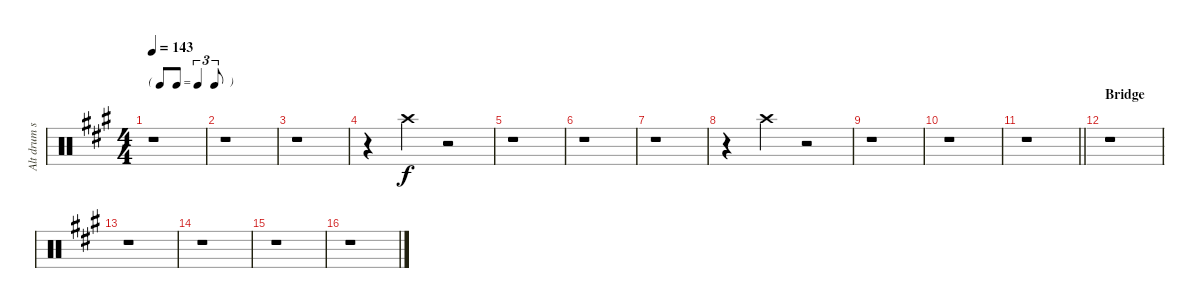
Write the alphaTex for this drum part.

\track ("Alt drum sounds" "Alt drum s") {instrument percussion}
\staff {score}
\articulation defaults
\ts (4 4)
\tf triplet8th
\tempo 143
\clef neutral
\ks a
r.1{dy f} |
r.1 |
r.1 |
r.4 "Crash high (hit)".4 r.2 |
r.1 |
r.1 |
r.1 |
r.4 "Crash high (hit)".4 r.2 |
r.1 |
r.1 |
\barLineRight lightlight
r.1 |
\section ("" "Bridge")
r.1 |
r.1 |
r.1 |
r.1 |
r.1
